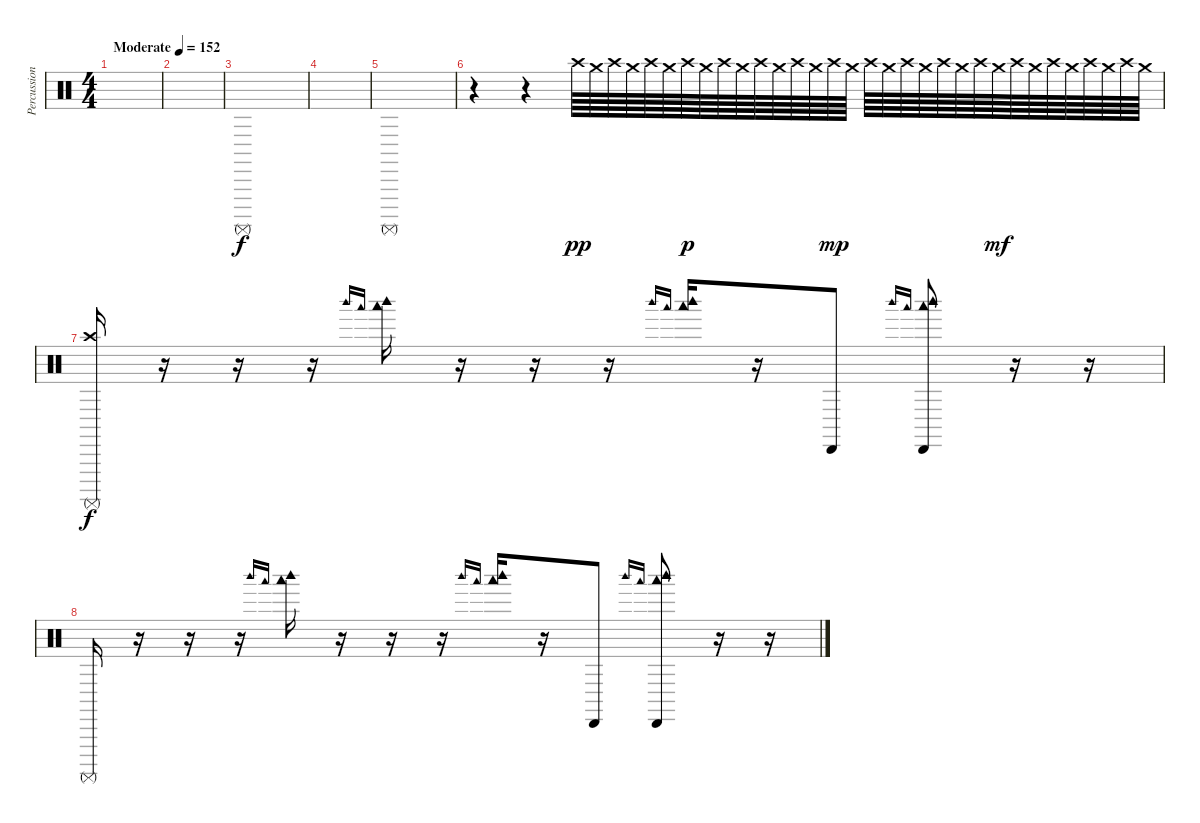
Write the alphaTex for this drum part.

\track ("Percussion" "Percussion") {instrument percussion}
\staff {score}
\articulation defaults
\ts (4 4)
\tempo (152 "Moderate")
\clef neutral
\ks c
|
|
"Surdo (mute)".1 |
|
"Surdo (mute)".1 |
r.4 r.4 "Crash high (hit)".64{dy pp} "Crash medium (hit)".64 "Crash high (hit)".64 "Crash medium (hit)".64 "Crash high (hit)".64 "Crash medium (hit)".64 "Crash high (hit)".64{dy p} "Crash medium (hit)".64 "Crash high (hit)".64 "Crash medium (hit)".64 "Crash high (hit)".64 "Crash medium (hit)".64 "Crash high (hit)".64 "Crash medium (hit)".64 "Crash high (hit)".64{dy mp} "Crash medium (hit)".64 "Crash high (hit)".64 "Crash medium (hit)".64 "Crash high (hit)".64 "Crash medium (hit)".64 "Crash high (hit)".64 "Crash medium (hit)".64 "Crash high (hit)".64 "Crash medium (hit)".64{dy mf} "Crash high (hit)".64 "Crash medium (hit)".64 "Crash high (hit)".64 "Crash medium (hit)".64 "Crash high (hit)".64 "Crash medium (hit)".64 "Crash high (hit)".64 "Crash medium (hit)".64 |
("Crash high (hit)" "Surdo (mute)").16{dy f} r.16 r.16 r.16 "Woodblock high (hit)".16{gr onbeat} "Woodblock low (hit)".16{gr onbeat} ("Woodblock high (hit)" "Woodblock low (hit)").16 r.16 r.16 r.16 "Woodblock high (hit)".16{gr onbeat} "Woodblock low (hit)".16{gr onbeat} ("Woodblock high (hit)" "Woodblock low (hit)").16 r.16 "Cabasa (hit)".8 "Woodblock high (hit)".16{gr onbeat} "Woodblock low (hit)".16{gr onbeat} ("Cabasa (hit)" "Woodblock high (hit)" "Woodblock low (hit)").8 r.16 r.16 |
"Surdo (mute)".16 r.16 r.16 r.16 "Woodblock high (hit)".16{gr onbeat} "Woodblock low (hit)".16{gr onbeat} ("Woodblock high (hit)" "Woodblock low (hit)").16 r.16 r.16 r.16 "Woodblock high (hit)".16{gr onbeat} "Woodblock low (hit)".16{gr onbeat} ("Woodblock high (hit)" "Woodblock low (hit)").16 r.16 "Cabasa (hit)".8 "Woodblock high (hit)".16{gr onbeat} "Woodblock low (hit)".16{gr onbeat} ("Cabasa (hit)" "Woodblock high (hit)" "Woodblock low (hit)").8 r.16 r.16
